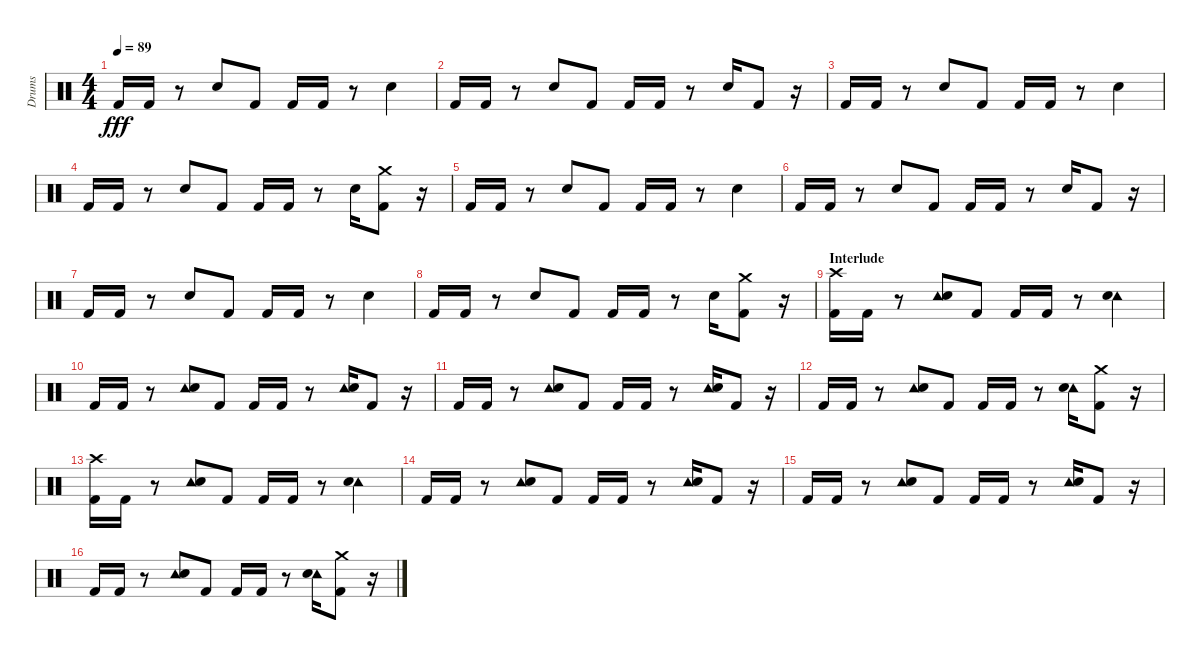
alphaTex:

\track ("Drums" "Drums") {instrument percussion}
\staff {score}
\articulation defaults
\ts (4 4)
\tempo 89
\clef neutral
\ks c "Kick (hit) 2".16{dy fff} "Kick (hit) 2".16
r.8 "Electric Snare (hit)".8 "Kick (hit) 2".8 "Kick (hit) 2".16 "Kick (hit) 2".16 r.8 "Electric Snare (hit)".4 |
"Kick (hit) 2".16 "Kick (hit) 2".16 r.8 "Electric Snare (hit)".8 "Kick (hit) 2".8 "Kick (hit) 2".16 "Kick (hit) 2".16 r.8 "Electric Snare (hit)".16 "Kick (hit) 2".8 r.16 |
"Kick (hit) 2".16 "Kick (hit) 2".16 r.8 "Electric Snare (hit)".8 "Kick (hit) 2".8 "Kick (hit) 2".16 "Kick (hit) 2".16 r.8 "Electric Snare (hit)".4 |
"Kick (hit) 2".16 "Kick (hit) 2".16 r.8 "Electric Snare (hit)".8 "Kick (hit) 2".8 "Kick (hit) 2".16 "Kick (hit) 2".16 r.8 "Electric Snare (hit)".16 ("Crash medium (hit)" "Kick (hit) 2").8 r.16 |
"Kick (hit) 2".16 "Kick (hit) 2".16 r.8 "Electric Snare (hit)".8 "Kick (hit) 2".8 "Kick (hit) 2".16 "Kick (hit) 2".16 r.8 "Electric Snare (hit)".4 |
"Kick (hit) 2".16 "Kick (hit) 2".16 r.8 "Electric Snare (hit)".8 "Kick (hit) 2".8 "Kick (hit) 2".16 "Kick (hit) 2".16 r.8 "Electric Snare (hit)".16 "Kick (hit) 2".8 r.16 |
"Kick (hit) 2".16 "Kick (hit) 2".16 r.8 "Electric Snare (hit)".8 "Kick (hit) 2".8 "Kick (hit) 2".16 "Kick (hit) 2".16 r.8 "Electric Snare (hit)".4 |
"Kick (hit) 2".16 "Kick (hit) 2".16 r.8 "Electric Snare (hit)".8 "Kick (hit) 2".8 "Kick (hit) 2".16 "Kick (hit) 2".16 r.8 "Electric Snare (hit)".16 ("Crash medium (hit)" "Kick (hit) 2").8 r.16 |
\section ("" "Interlude")
("Crash high (hit)" "Kick (hit) 2").16 "Kick (hit) 2".16 r.8 ("Tambourine (hit)" "Electric Snare (hit)").8 "Kick (hit) 2".8 "Kick (hit) 2".16 "Kick (hit) 2".16 r.8 ("Tambourine (hit)" "Electric Snare (hit)").4 |
"Kick (hit) 2".16 "Kick (hit) 2".16 r.8 ("Tambourine (hit)" "Electric Snare (hit)").8 "Kick (hit) 2".8 "Kick (hit) 2".16 "Kick (hit) 2".16 r.8 ("Tambourine (hit)" "Electric Snare (hit)").16 "Kick (hit) 2".8 r.16 |
"Kick (hit) 2".16 "Kick (hit) 2".16 r.8 ("Tambourine (hit)" "Electric Snare (hit)").8 "Kick (hit) 2".8 "Kick (hit) 2".16 "Kick (hit) 2".16 r.8 ("Tambourine (hit)" "Electric Snare (hit)").16 "Kick (hit) 2".8 r.16 |
"Kick (hit) 2".16 "Kick (hit) 2".16 r.8 ("Tambourine (hit)" "Electric Snare (hit)").8 "Kick (hit) 2".8 "Kick (hit) 2".16 "Kick (hit) 2".16 r.8 ("Tambourine (hit)" "Electric Snare (hit)").16 ("Crash medium (hit)" "Kick (hit) 2").8 r.16 |
("Crash high (hit)" "Kick (hit) 2").16 "Kick (hit) 2".16 r.8 ("Tambourine (hit)" "Electric Snare (hit)").8 "Kick (hit) 2".8 "Kick (hit) 2".16 "Kick (hit) 2".16 r.8 ("Tambourine (hit)" "Electric Snare (hit)").4 |
"Kick (hit) 2".16 "Kick (hit) 2".16 r.8 ("Tambourine (hit)" "Electric Snare (hit)").8 "Kick (hit) 2".8 "Kick (hit) 2".16 "Kick (hit) 2".16 r.8 ("Tambourine (hit)" "Electric Snare (hit)").16 "Kick (hit) 2".8 r.16 |
"Kick (hit) 2".16 "Kick (hit) 2".16 r.8 ("Tambourine (hit)" "Electric Snare (hit)").8 "Kick (hit) 2".8 "Kick (hit) 2".16 "Kick (hit) 2".16 r.8 ("Tambourine (hit)" "Electric Snare (hit)").16 "Kick (hit) 2".8 r.16 |
"Kick (hit) 2".16 "Kick (hit) 2".16 r.8 ("Tambourine (hit)" "Electric Snare (hit)").8 "Kick (hit) 2".8 "Kick (hit) 2".16 "Kick (hit) 2".16 r.8 ("Tambourine (hit)" "Electric Snare (hit)").16 ("Crash medium (hit)" "Kick (hit) 2").8 r.16
